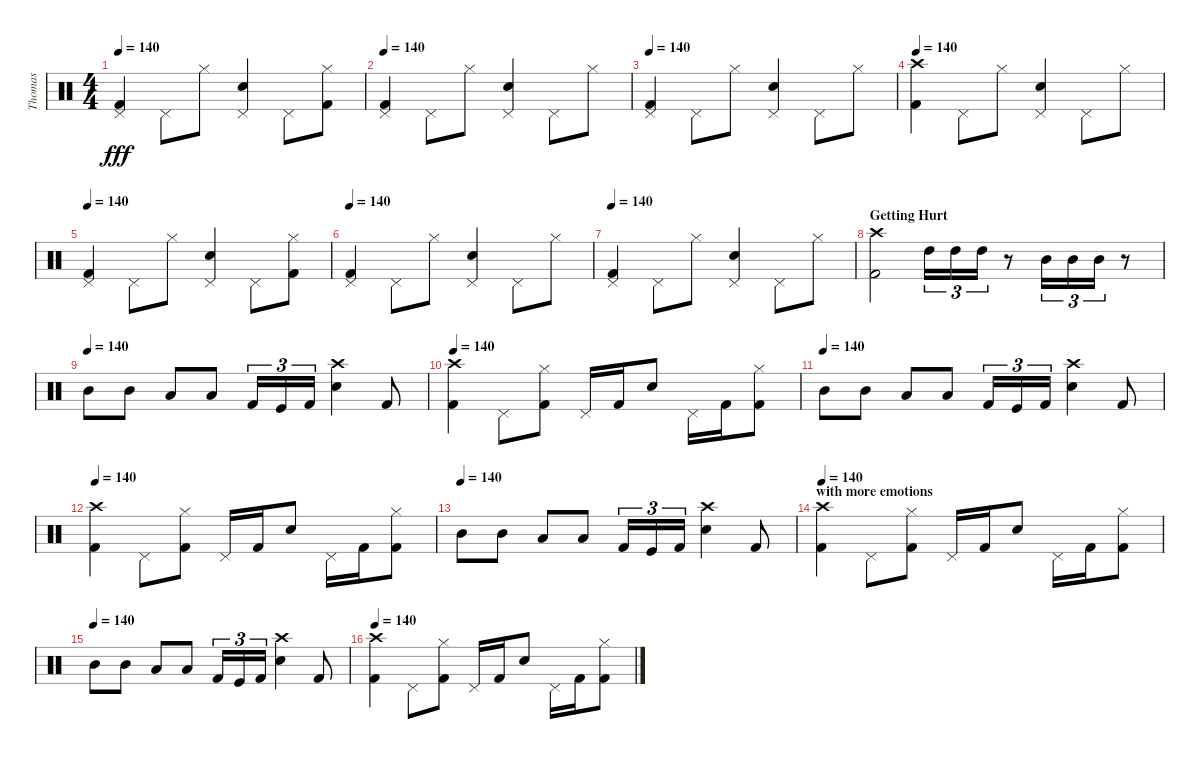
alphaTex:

\track ("Thomas" "Thomas") {instrument percussion}
\staff {score}
\articulation defaults
\ts (4 4)
\tempo 140
\clef neutral
\ks c
("Pedal Hi-Hat (hit)" "Kick (hit) 2").4{dy fff} "Pedal Hi-Hat (hit)".8 "Hi-Hat (closed)".8 ("Pedal Hi-Hat (hit)" "Snare (hit) 2").4 "Pedal Hi-Hat (hit)".8 ("Hi-Hat (closed)" "Kick (hit) 2").8 |
\tempo 140
("Pedal Hi-Hat (hit)" "Kick (hit) 2").4 "Pedal Hi-Hat (hit)".8 "Hi-Hat (closed)".8 ("Pedal Hi-Hat (hit)" "Snare (hit) 2").4 "Pedal Hi-Hat (hit)".8 "Hi-Hat (closed)".8 |
\tempo 140
("Pedal Hi-Hat (hit)" "Kick (hit) 2").4 "Pedal Hi-Hat (hit)".8 "Hi-Hat (closed)".8 ("Pedal Hi-Hat (hit)" "Snare (hit) 2").4 "Pedal Hi-Hat (hit)".8 "Hi-Hat (closed)".8 |
\tempo 140
("Crash high (hit)" "Kick (hit) 2").4 "Pedal Hi-Hat (hit)".8 "Hi-Hat (closed)".8 ("Pedal Hi-Hat (hit)" "Snare (hit) 2").4 "Pedal Hi-Hat (hit)".8 "Hi-Hat (closed)".8 |
\tempo 140
("Pedal Hi-Hat (hit)" "Kick (hit) 2").4 "Pedal Hi-Hat (hit)".8 "Hi-Hat (closed)".8 ("Pedal Hi-Hat (hit)" "Snare (hit) 2").4 "Pedal Hi-Hat (hit)".8 ("Hi-Hat (closed)" "Kick (hit) 2").8 |
\tempo 140
("Pedal Hi-Hat (hit)" "Kick (hit) 2").4 "Pedal Hi-Hat (hit)".8 "Hi-Hat (closed)".8 ("Pedal Hi-Hat (hit)" "Snare (hit) 2").4 "Pedal Hi-Hat (hit)".8 "Hi-Hat (closed)".8 |
\tempo 140
("Pedal Hi-Hat (hit)" "Kick (hit) 2").4 "Pedal Hi-Hat (hit)".8 "Hi-Hat (closed)".8 ("Pedal Hi-Hat (hit)" "Snare (hit) 2").4 "Pedal Hi-Hat (hit)".8 "Hi-Hat (closed)".8 |
\section ("" "Getting Hurt")
("Crash high (hit)" "Kick (hit) 2").2 "High Tom (hit)".16{tu (3 2)} "High Tom (hit)".16{tu (3 2)} "High Tom (hit)".16{tu (3 2)} r.8 "Mid Tom (hit)".16{tu (3 2)} "Mid Tom (hit)".16{tu (3 2)} "Mid Tom (hit)".16{tu (3 2)} r.8 |
\tempo (140)
"Mid Tom (hit)".8 "Mid Tom (hit)".8 "Low Tom (hit)".8 "Low Tom (hit)".8 "Kick (hit) 2".16{tu (3 2)} "Kick (hit)".16{tu (3 2)} "Kick (hit) 2".16{tu (3 2)} ("Crash high (hit)" "Snare (hit) 2").4 "Kick (hit) 2".8 |
\tempo 140
("Crash high (hit)" "Kick (hit) 2").4 "Pedal Hi-Hat (hit)".8 ("Hi-Hat (closed)" "Kick (hit) 2").8 "Pedal Hi-Hat (hit)".16 "Kick (hit) 2".16 "Snare (hit) 2".8 "Pedal Hi-Hat (hit)".16 "Kick (hit) 2".16 ("Hi-Hat (closed)" "Kick (hit) 2").8 |
\tempo (140)
"Mid Tom (hit)".8 "Mid Tom (hit)".8 "Low Tom (hit)".8 "Low Tom (hit)".8 "Kick (hit) 2".16{tu (3 2)} "Kick (hit)".16{tu (3 2)} "Kick (hit) 2".16{tu (3 2)} ("Crash high (hit)" "Snare (hit) 2").4 "Kick (hit) 2".8 |
\tempo 140
("Crash high (hit)" "Kick (hit) 2").4 "Pedal Hi-Hat (hit)".8 ("Hi-Hat (closed)" "Kick (hit) 2").8 "Pedal Hi-Hat (hit)".16 "Kick (hit) 2".16 "Snare (hit) 2".8 "Pedal Hi-Hat (hit)".16 "Kick (hit) 2".16 ("Hi-Hat (closed)" "Kick (hit) 2").8 |
\tempo (140)
"Mid Tom (hit)".8 "Mid Tom (hit)".8 "Low Tom (hit)".8 "Low Tom (hit)".8 "Kick (hit) 2".16{tu (3 2)} "Kick (hit)".16{tu (3 2)} "Kick (hit) 2".16{tu (3 2)} ("Crash high (hit)" "Snare (hit) 2").4 "Kick (hit) 2".8 |
\section ("" "with more emotions")
\tempo 140
("Crash high (hit)" "Kick (hit) 2").4 "Pedal Hi-Hat (hit)".8 ("Hi-Hat (closed)" "Kick (hit) 2").8 "Pedal Hi-Hat (hit)".16 "Kick (hit) 2".16 "Snare (hit) 2".8 "Pedal Hi-Hat (hit)".16 "Kick (hit) 2".16 ("Hi-Hat (closed)" "Kick (hit) 2").8 |
\tempo (140)
"Mid Tom (hit)".8 "Mid Tom (hit)".8 "Low Tom (hit)".8 "Low Tom (hit)".8 "Kick (hit) 2".16{tu (3 2)} "Kick (hit)".16{tu (3 2)} "Kick (hit) 2".16{tu (3 2)} ("Crash high (hit)" "Snare (hit) 2").4 "Kick (hit) 2".8 |
\tempo 140
("Crash high (hit)" "Kick (hit) 2").4 "Pedal Hi-Hat (hit)".8 ("Hi-Hat (closed)" "Kick (hit) 2").8 "Pedal Hi-Hat (hit)".16 "Kick (hit) 2".16 "Snare (hit) 2".8 "Pedal Hi-Hat (hit)".16 "Kick (hit) 2".16 ("Hi-Hat (closed)" "Kick (hit) 2").8
